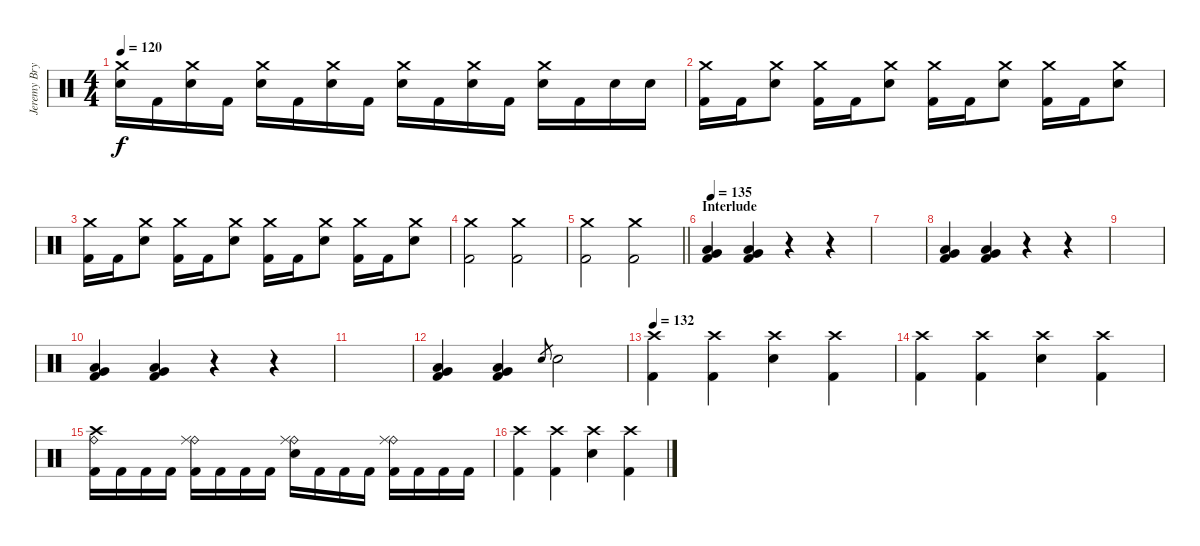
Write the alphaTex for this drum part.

\track ("Jeremy Bryan - Drums" "Jeremy Bry") {instrument percussion}
\staff {score}
\articulation defaults
\ts (4 4)
\tempo 120
\clef neutral
\ks c
("Crash medium (hit)" "Electric Snare (hit)").16{dy f} "Kick (hit) 2".16 ("Crash medium (hit)" "Electric Snare (hit)").16 "Kick (hit) 2".16 ("Crash medium (hit)" "Electric Snare (hit)").16 "Kick (hit) 2".16 ("Crash medium (hit)" "Electric Snare (hit)").16 "Kick (hit) 2".16 ("Crash medium (hit)" "Electric Snare (hit)").16 "Kick (hit) 2".16 ("Crash medium (hit)" "Electric Snare (hit)").16 "Kick (hit) 2".16 ("Crash medium (hit)" "Electric Snare (hit)").16 "Kick (hit) 2".16 "Electric Snare (hit)".16 "Electric Snare (hit)".16 |
("Crash medium (hit)" "Kick (hit) 2").16 "Kick (hit) 2".16 ("Crash medium (hit)" "Electric Snare (hit)").8 ("Crash medium (hit)" "Kick (hit) 2").16 "Kick (hit) 2".16 ("Crash medium (hit)" "Electric Snare (hit)").8 ("Crash medium (hit)" "Kick (hit) 2").16 "Kick (hit) 2".16 ("Crash medium (hit)" "Electric Snare (hit)").8 ("Crash medium (hit)" "Kick (hit) 2").16 "Kick (hit) 2".16 ("Crash medium (hit)" "Electric Snare (hit)").8 |
("Crash medium (hit)" "Kick (hit) 2").16 "Kick (hit) 2".16 ("Crash medium (hit)" "Electric Snare (hit)").8 ("Crash medium (hit)" "Kick (hit) 2").16 "Kick (hit) 2".16 ("Crash medium (hit)" "Electric Snare (hit)").8 ("Crash medium (hit)" "Kick (hit) 2").16 "Kick (hit) 2".16 ("Crash medium (hit)" "Electric Snare (hit)").8 ("Crash medium (hit)" "Kick (hit) 2").16 "Kick (hit) 2".16 ("Crash medium (hit)" "Electric Snare (hit)").8 |
("Crash medium (hit)" "Kick (hit) 2").2 ("Crash medium (hit)" "Kick (hit) 2").2 |
\barLineRight lightlight
("Crash medium (hit)" "Kick (hit) 2").2 ("Crash medium (hit)" "Kick (hit) 2").2 |
\section ("" "Interlude")
\tempo 135
("Low Floor Tom (hit)" "Very Low Tom (hit)" "Kick (hit) 2").4 ("Low Floor Tom (hit)" "Very Low Tom (hit)" "Kick (hit) 2").4 r.4 r.4 |
|
("Low Floor Tom (hit)" "Very Low Tom (hit)" "Kick (hit) 2").4 ("Low Floor Tom (hit)" "Very Low Tom (hit)" "Kick (hit) 2").4 r.4 r.4 |
|
("Low Floor Tom (hit)" "Very Low Tom (hit)" "Kick (hit) 2").4 ("Low Floor Tom (hit)" "Very Low Tom (hit)" "Kick (hit) 2").4 r.4 r.4 |
|
("Low Floor Tom (hit)" "Very Low Tom (hit)" "Kick (hit) 2").4 ("Low Floor Tom (hit)" "Very Low Tom (hit)" "Kick (hit) 2").4 "Electric Snare (hit)".8{gr} "Electric Snare (hit)".2 |
\tempo 132
("Crash high (hit)" "Kick (hit) 2").4 ("Crash high (hit)" "Kick (hit) 2").4 ("Crash high (hit)" "Electric Snare (hit)").4 ("Crash high (hit)" "Kick (hit) 2").4 |
("Crash high (hit)" "Kick (hit) 2").4 ("Crash high (hit)" "Kick (hit) 2").4 ("Crash high (hit)" "Electric Snare (hit)").4 ("Crash high (hit)" "Kick (hit) 2").4 |
("Crash high (hit)" "Ride (bell)" "Kick (hit) 2").16 "Kick (hit) 2".16 "Kick (hit) 2".16 "Kick (hit) 2".16 ("Ride (bell)" "Ride (middle)" "Kick (hit) 2").16 "Kick (hit) 2".16 "Kick (hit) 2".16 "Kick (hit) 2".16 ("Ride (bell)" "Ride (middle)" "Electric Snare (hit)").16 "Kick (hit) 2".16 "Kick (hit) 2".16 "Kick (hit) 2".16 ("Ride (bell)" "Ride (middle)" "Kick (hit) 2").16 "Kick (hit) 2".16 "Kick (hit) 2".16 "Kick (hit) 2".16 |
("Crash high (hit)" "Kick (hit) 2").4 ("Crash high (hit)" "Kick (hit) 2").4 ("Crash high (hit)" "Electric Snare (hit)").4 ("Crash high (hit)" "Kick (hit) 2").4
